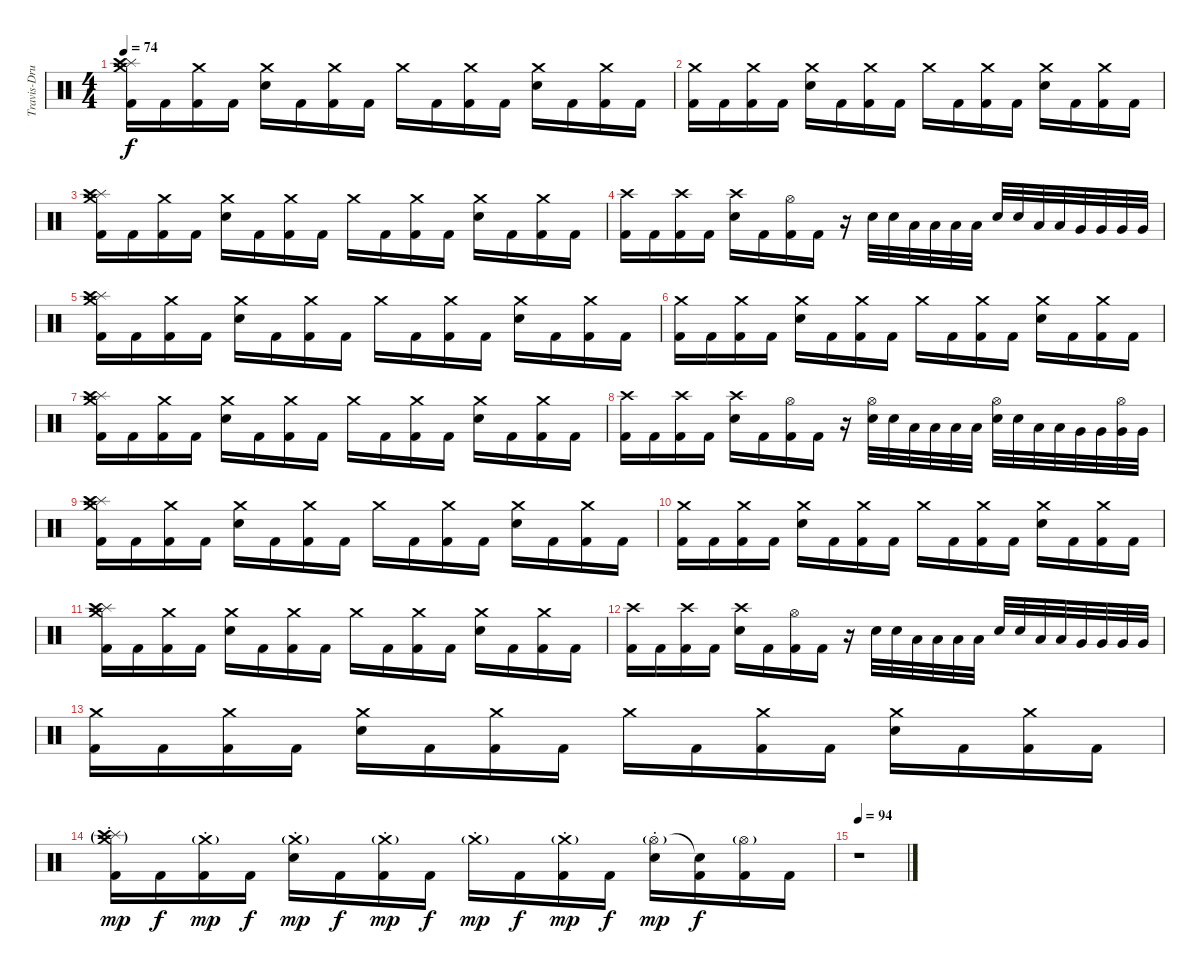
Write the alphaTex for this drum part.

\track ("Travis-Drums" "Travis-Dru") {instrument percussion}
\staff {score}
\articulation defaults
\ts (4 4)
\tempo 74
\clef neutral
\ks c
("Splash (hit)" "Crash high (hit)" "Crash medium (hit)" "Kick (hit) 2").16{dy f} "Kick (hit) 2".16 ("Crash medium (hit)" "Kick (hit) 2").16 "Kick (hit) 2".16 ("Crash medium (hit)" "Snare (hit) 2").16 "Kick (hit) 2".16 ("Crash medium (hit)" "Kick (hit) 2").16 "Kick (hit) 2".16 "Crash medium (hit)".16 "Kick (hit) 2".16 ("Crash medium (hit)" "Kick (hit) 2").16 "Kick (hit) 2".16 ("Crash medium (hit)" "Snare (hit) 2").16 "Kick (hit) 2".16 ("Crash medium (hit)" "Kick (hit) 2").16 "Kick (hit) 2".16 |
("Crash medium (hit)" "Kick (hit) 2").16 "Kick (hit) 2".16 ("Crash medium (hit)" "Kick (hit) 2").16 "Kick (hit) 2".16 ("Crash medium (hit)" "Snare (hit) 2").16 "Kick (hit) 2".16 ("Crash medium (hit)" "Kick (hit) 2").16 "Kick (hit) 2".16 "Crash medium (hit)".16 "Kick (hit) 2".16 ("Crash medium (hit)" "Kick (hit) 2").16 "Kick (hit) 2".16 ("Crash medium (hit)" "Snare (hit) 2").16 "Kick (hit) 2".16 ("Crash medium (hit)" "Kick (hit) 2").16 "Kick (hit) 2".16 |
("Splash (hit)" "Crash high (hit)" "Crash medium (hit)" "Kick (hit) 2").16 "Kick (hit) 2".16 ("Crash medium (hit)" "Kick (hit) 2").16 "Kick (hit) 2".16 ("Crash medium (hit)" "Snare (hit) 2").16 "Kick (hit) 2".16 ("Crash medium (hit)" "Kick (hit) 2").16 "Kick (hit) 2".16 "Crash medium (hit)".16 "Kick (hit) 2".16 ("Crash medium (hit)" "Kick (hit) 2").16 "Kick (hit) 2".16 ("Crash medium (hit)" "Snare (hit) 2").16 "Kick (hit) 2".16 ("Crash medium (hit)" "Kick (hit) 2").16 "Kick (hit) 2".16 |
("Crash high (hit)" "Kick (hit) 2").16 "Kick (hit) 2".16 ("Crash high (hit)" "Kick (hit) 2").16 "Kick (hit) 2".16 ("Crash high (hit)" "Electric Snare (hit)").16 "Kick (hit) 2".16 ("Hi-Hat (open)" "Kick (hit) 2").16 "Kick (hit) 2".16 r.16 "Electric Snare (hit)".32 "Electric Snare (hit)".32 "Low Tom (hit)".32 "Low Tom (hit)".32 "Low Tom (hit)".32 "Low Tom (hit)".32 "Electric Snare (hit)".32 "Electric Snare (hit)".32 "Low Tom (hit)".32 "Low Tom (hit)".32 "Very Low Tom (hit)".32 "Very Low Tom (hit)".32 "Very Low Tom (hit)".32 "Very Low Tom (hit)".32 |
("Splash (hit)" "Crash high (hit)" "Crash medium (hit)" "Kick (hit) 2").16 "Kick (hit) 2".16 ("Crash medium (hit)" "Kick (hit) 2").16 "Kick (hit) 2".16 ("Crash medium (hit)" "Snare (hit) 2").16 "Kick (hit) 2".16 ("Crash medium (hit)" "Kick (hit) 2").16 "Kick (hit) 2".16 "Crash medium (hit)".16 "Kick (hit) 2".16 ("Crash medium (hit)" "Kick (hit) 2").16 "Kick (hit) 2".16 ("Crash medium (hit)" "Snare (hit) 2").16 "Kick (hit) 2".16 ("Crash medium (hit)" "Kick (hit) 2").16 "Kick (hit) 2".16 |
("Crash medium (hit)" "Kick (hit) 2").16 "Kick (hit) 2".16 ("Crash medium (hit)" "Kick (hit) 2").16 "Kick (hit) 2".16 ("Crash medium (hit)" "Snare (hit) 2").16 "Kick (hit) 2".16 ("Crash medium (hit)" "Kick (hit) 2").16 "Kick (hit) 2".16 "Crash medium (hit)".16 "Kick (hit) 2".16 ("Crash medium (hit)" "Kick (hit) 2").16 "Kick (hit) 2".16 ("Crash medium (hit)" "Snare (hit) 2").16 "Kick (hit) 2".16 ("Crash medium (hit)" "Kick (hit) 2").16 "Kick (hit) 2".16 |
("Splash (hit)" "Crash high (hit)" "Crash medium (hit)" "Kick (hit) 2").16 "Kick (hit) 2".16 ("Crash medium (hit)" "Kick (hit) 2").16 "Kick (hit) 2".16 ("Crash medium (hit)" "Snare (hit) 2").16 "Kick (hit) 2".16 ("Crash medium (hit)" "Kick (hit) 2").16 "Kick (hit) 2".16 "Crash medium (hit)".16 "Kick (hit) 2".16 ("Crash medium (hit)" "Kick (hit) 2").16 "Kick (hit) 2".16 ("Crash medium (hit)" "Snare (hit) 2").16 "Kick (hit) 2".16 ("Crash medium (hit)" "Kick (hit) 2").16 "Kick (hit) 2".16 |
("Crash high (hit)" "Kick (hit) 2").16 "Kick (hit) 2".16 ("Crash high (hit)" "Kick (hit) 2").16 "Kick (hit) 2".16 ("Crash high (hit)" "Snare (hit) 2").16 "Kick (hit) 2".16 ("Hi-Hat (open)" "Kick (hit) 2").16 "Kick (hit) 2".16 r.16 ("Hi-Hat (open)" "Electric Snare (hit)").32 "Electric Snare (hit)".32 "Low Tom (hit)".32 "Low Tom (hit)".32 "Low Tom (hit)".32 "Low Tom (hit)".32 ("Hi-Hat (open)" "Electric Snare (hit)").32 "Electric Snare (hit)".32 "Low Tom (hit)".32 "Low Tom (hit)".32 "Very Low Tom (hit)".32 "Very Low Tom (hit)".32 ("Hi-Hat (open)" "Very Low Tom (hit)").32 "Very Low Tom (hit)".32 |
("Splash (hit)" "Crash high (hit)" "Crash medium (hit)" "Kick (hit) 2").16 "Kick (hit) 2".16 ("Crash medium (hit)" "Kick (hit) 2").16 "Kick (hit) 2".16 ("Crash medium (hit)" "Snare (hit) 2").16 "Kick (hit) 2".16 ("Crash medium (hit)" "Kick (hit) 2").16 "Kick (hit) 2".16 "Crash medium (hit)".16 "Kick (hit) 2".16 ("Crash medium (hit)" "Kick (hit) 2").16 "Kick (hit) 2".16 ("Crash medium (hit)" "Snare (hit) 2").16 "Kick (hit) 2".16 ("Crash medium (hit)" "Kick (hit) 2").16 "Kick (hit) 2".16 |
("Crash medium (hit)" "Kick (hit) 2").16 "Kick (hit) 2".16 ("Crash medium (hit)" "Kick (hit) 2").16 "Kick (hit) 2".16 ("Crash medium (hit)" "Snare (hit) 2").16 "Kick (hit) 2".16 ("Crash medium (hit)" "Kick (hit) 2").16 "Kick (hit) 2".16 "Crash medium (hit)".16 "Kick (hit) 2".16 ("Crash medium (hit)" "Kick (hit) 2").16 "Kick (hit) 2".16 ("Crash medium (hit)" "Snare (hit) 2").16 "Kick (hit) 2".16 ("Crash medium (hit)" "Kick (hit) 2").16 "Kick (hit) 2".16 |
("Splash (hit)" "Crash high (hit)" "Crash medium (hit)" "Kick (hit) 2").16 "Kick (hit) 2".16 ("Crash medium (hit)" "Kick (hit) 2").16 "Kick (hit) 2".16 ("Crash medium (hit)" "Snare (hit) 2").16 "Kick (hit) 2".16 ("Crash medium (hit)" "Kick (hit) 2").16 "Kick (hit) 2".16 "Crash medium (hit)".16 "Kick (hit) 2".16 ("Crash medium (hit)" "Kick (hit) 2").16 "Kick (hit) 2".16 ("Crash medium (hit)" "Snare (hit) 2").16 "Kick (hit) 2".16 ("Crash medium (hit)" "Kick (hit) 2").16 "Kick (hit) 2".16 |
("Crash high (hit)" "Kick (hit) 2").16 "Kick (hit) 2".16 ("Crash high (hit)" "Kick (hit) 2").16 "Kick (hit) 2".16 ("Crash high (hit)" "Electric Snare (hit)").16 "Kick (hit) 2".16 ("Hi-Hat (open)" "Kick (hit) 2").16 "Kick (hit) 2".16 r.16 "Electric Snare (hit)".32 "Electric Snare (hit)".32 "Low Tom (hit)".32 "Low Tom (hit)".32 "Low Tom (hit)".32 "Low Tom (hit)".32 "Electric Snare (hit)".32 "Electric Snare (hit)".32 "Low Tom (hit)".32 "Low Tom (hit)".32 "Very Low Tom (hit)".32 "Very Low Tom (hit)".32 "Very Low Tom (hit)".32 "Very Low Tom (hit)".32 |
("Crash medium (hit)" "Kick (hit) 2").16 "Kick (hit) 2".16 ("Crash medium (hit)" "Kick (hit) 2").16 "Kick (hit) 2".16 ("Crash medium (hit)" "Snare (hit) 2").16 "Kick (hit) 2".16 ("Crash medium (hit)" "Kick (hit) 2").16 "Kick (hit) 2".16 "Crash medium (hit)".16 "Kick (hit) 2".16 ("Crash medium (hit)" "Kick (hit) 2").16 "Kick (hit) 2".16 ("Crash medium (hit)" "Snare (hit) 2").16 "Kick (hit) 2".16 ("Crash medium (hit)" "Kick (hit) 2").16 "Kick (hit) 2".16 |
("Splash (hit)"{g st} "Crash high (hit)"{g st} "Crash medium (hit)"{g st} "Kick (hit) 2").16{dy mp} "Kick (hit) 2".16{dy f} ("Crash medium (hit)"{g st} "Kick (hit) 2").16{dy mp} "Kick (hit) 2".16{dy f} ("Crash medium (hit)"{g st} "Snare (hit) 2").16{dy mp} "Kick (hit) 2".16{dy f} ("Crash medium (hit)"{g st} "Kick (hit) 2").16{dy mp} "Kick (hit) 2".16{dy f} "Crash medium (hit)"{g st}.16{dy mp} "Kick (hit) 2".16{dy f} ("Crash medium (hit)"{g st} "Kick (hit) 2").16{dy mp} "Kick (hit) 2".16{dy f} ("Hi-Hat (open)"{g st} "Snare (hit) 2").16{dy mp} ("Snare (hit)"{t} "Kick (hit) 2").16{dy f} ("Hi-Hat (open)"{g} "Kick (hit) 2").16 "Kick (hit) 2".16 |
\tempo 94
r.1
